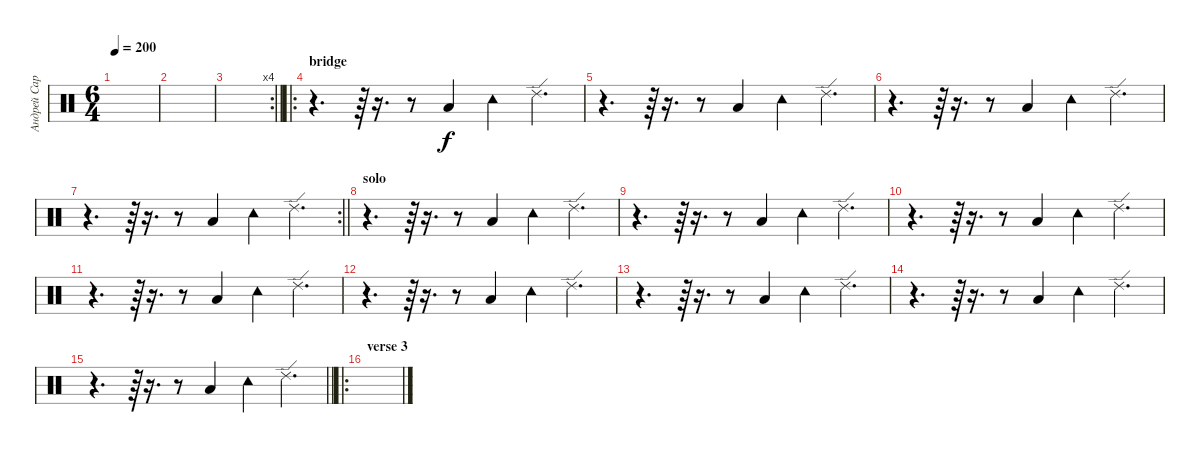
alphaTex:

\track ("Андрей Сараев" "Андрей Сар") {instrument percussion}
\staff {score}
\articulation defaults
\ts (6 4)
\tempo 200
\clef neutral
\ks c
|
|
\rc 4
\barLineRight lightlight
|
\ro
\section ("" "bridge")
r.4{d} r.64 r.16{d} r.8 "Low Floor Tom (hit)".4 "Tambourine (hit)".4 "Ride (edge) 2".4{d} |
r.4{d} r.64 r.16{d} r.8 "Low Floor Tom (hit)".4 "Tambourine (hit)".4 "Ride (edge) 2".4{d} |
r.4{d} r.64 r.16{d} r.8 "Low Floor Tom (hit)".4 "Tambourine (hit)".4 "Ride (edge) 2".4{d} |
\rc 2
\barLineRight lightlight
r.4{d} r.64 r.16{d} r.8 "Low Floor Tom (hit)".4 "Tambourine (hit)".4 "Ride (edge) 2".4{d} |
\section ("" "solo")
r.4{d} r.64 r.16{d} r.8 "Low Floor Tom (hit)".4 "Tambourine (hit)".4 "Ride (edge) 2".4{d} |
r.4{d} r.64 r.16{d} r.8 "Low Floor Tom (hit)".4 "Tambourine (hit)".4 "Ride (edge) 2".4{d} |
r.4{d} r.64 r.16{d} r.8 "Low Floor Tom (hit)".4 "Tambourine (hit)".4 "Ride (edge) 2".4{d} |
r.4{d} r.64 r.16{d} r.8 "Low Floor Tom (hit)".4 "Tambourine (hit)".4 "Ride (edge) 2".4{d} |
r.4{d} r.64 r.16{d} r.8 "Low Floor Tom (hit)".4 "Tambourine (hit)".4 "Ride (edge) 2".4{d} |
r.4{d} r.64 r.16{d} r.8 "Low Floor Tom (hit)".4 "Tambourine (hit)".4 "Ride (edge) 2".4{d} |
r.4{d} r.64 r.16{d} r.8 "Low Floor Tom (hit)".4 "Tambourine (hit)".4 "Ride (edge) 2".4{d} |
\barLineRight lightlight
r.4{d} r.64 r.16{d} r.8 "Low Floor Tom (hit)".4 "Tambourine (hit)".4 "Ride (edge) 2".4{d} |
\ro
\section ("" "verse 3")
